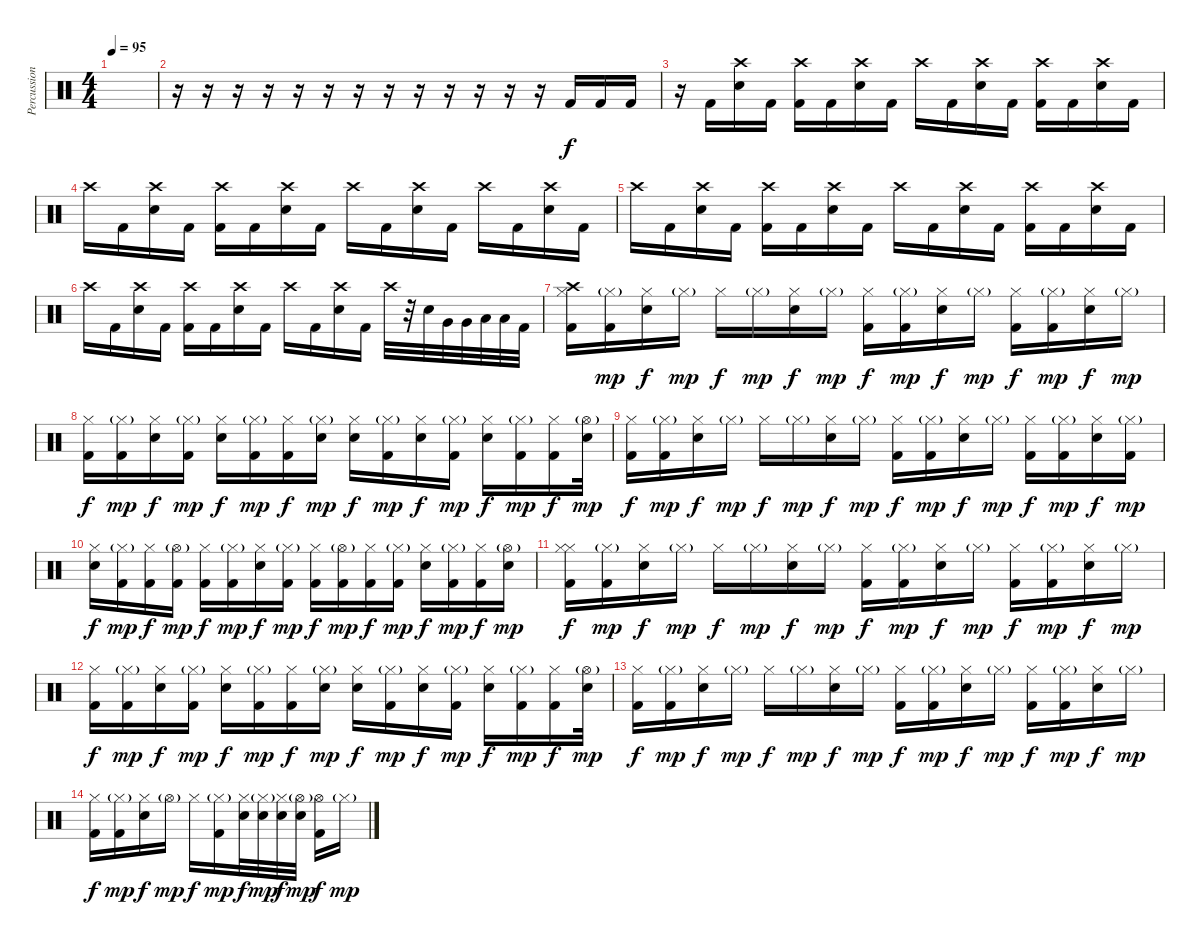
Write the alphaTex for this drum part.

\track ("Percussion" "Percussion") {instrument percussion}
\staff {score}
\articulation defaults
\ts (4 4)
\tempo 95
\clef neutral
\ks c
|
r.16 r.16 r.16 r.16 r.16 r.16 r.16 r.16 r.16 r.16 r.16 r.16 r.16 "Kick (hit) 2".16 "Kick (hit) 2".16 "Kick (hit) 2".16 |
r.16 "Kick (hit) 2".16{dy f} ("Crash high (hit)" "Electric Snare (hit)").16 "Kick (hit) 2".16 ("Crash high (hit)" "Kick (hit) 2").16 "Kick (hit) 2".16 ("Crash high (hit)" "Electric Snare (hit)").16 "Kick (hit) 2".16 "Crash high (hit)".16 "Kick (hit) 2".16 ("Crash high (hit)" "Electric Snare (hit)").16 "Kick (hit) 2".16 ("Crash high (hit)" "Kick (hit) 2").16 "Kick (hit) 2".16 ("Crash high (hit)" "Electric Snare (hit)").16 "Kick (hit) 2".16 |
"Crash high (hit)".16 "Kick (hit) 2".16 ("Crash high (hit)" "Electric Snare (hit)").16 "Kick (hit) 2".16 ("Crash high (hit)" "Kick (hit) 2").16 "Kick (hit) 2".16 ("Crash high (hit)" "Electric Snare (hit)").16 "Kick (hit) 2".16 "Crash high (hit)".16 "Kick (hit) 2".16 ("Crash high (hit)" "Electric Snare (hit)").16 "Kick (hit) 2".16 "Crash high (hit)".16 "Kick (hit) 2".16 ("Crash high (hit)" "Electric Snare (hit)").16 "Kick (hit) 2".16 |
"Crash high (hit)".16 "Kick (hit) 2".16 ("Crash high (hit)" "Electric Snare (hit)").16 "Kick (hit) 2".16 ("Crash high (hit)" "Kick (hit) 2").16 "Kick (hit) 2".16 ("Crash high (hit)" "Electric Snare (hit)").16 "Kick (hit) 2".16 "Crash high (hit)".16 "Kick (hit) 2".16 ("Crash high (hit)" "Electric Snare (hit)").16 "Kick (hit) 2".16 ("Crash high (hit)" "Kick (hit) 2").16 "Kick (hit) 2".16 ("Crash high (hit)" "Electric Snare (hit)").16 "Kick (hit) 2".16 |
"Crash high (hit)".16 "Kick (hit) 2".16 ("Crash high (hit)" "Electric Snare (hit)").16 "Kick (hit) 2".16 ("Crash high (hit)" "Kick (hit) 2").16 "Kick (hit) 2".16 ("Crash high (hit)" "Electric Snare (hit)").16 "Kick (hit) 2".16 "Crash high (hit)".16 "Kick (hit) 2".16 ("Crash high (hit)" "Electric Snare (hit)").16 "Kick (hit) 2".16 "Crash high (hit)".32 r.32 "Electric Snare (hit)".32 "Very Low Tom (hit)".32 "Very Low Tom (hit)".32 "Low Floor Tom (hit)".32 "Low Floor Tom (hit)".32 "Kick (hit) 2".32 |
("Crash high (hit)" "Hi-Hat (closed)" "Kick (hit) 2").16 ("Hi-Hat (closed)"{g} "Kick (hit) 2").16{dy mp} ("Hi-Hat (closed)" "Electric Snare (hit)").16{dy f} "Hi-Hat (closed)"{g}.16{dy mp} "Hi-Hat (closed)".16{dy f} "Hi-Hat (closed)"{g}.16{dy mp} ("Hi-Hat (closed)" "Electric Snare (hit)").16{dy f} "Hi-Hat (closed)"{g}.16{dy mp} ("Hi-Hat (closed)" "Kick (hit) 2").16{dy f} ("Hi-Hat (closed)"{g} "Kick (hit) 2").16{dy mp} ("Hi-Hat (closed)" "Electric Snare (hit)").16{dy f} "Hi-Hat (closed)"{g}.16{dy mp} ("Hi-Hat (closed)" "Kick (hit) 2").16{dy f} ("Hi-Hat (closed)"{g} "Kick (hit) 2").16{dy mp} ("Hi-Hat (closed)" "Electric Snare (hit)").16{dy f} "Hi-Hat (closed)"{g}.16{dy mp} |
("Hi-Hat (closed)" "Kick (hit) 2").16{dy f} ("Hi-Hat (closed)"{g} "Kick (hit) 2").16{dy mp} ("Hi-Hat (closed)" "Electric Snare (hit)").16{dy f} ("Hi-Hat (closed)"{g} "Kick (hit) 2").16{dy mp} ("Hi-Hat (closed)" "Electric Snare (hit)").16{dy f} ("Hi-Hat (closed)"{g} "Kick (hit) 2").16{dy mp} ("Hi-Hat (closed)" "Kick (hit) 2").16{dy f} ("Hi-Hat (closed)"{g} "Electric Snare (hit)").16{dy mp} ("Hi-Hat (closed)" "Electric Snare (hit)").16{dy f} ("Hi-Hat (closed)"{g} "Kick (hit) 2").16{dy mp} ("Hi-Hat (closed)" "Electric Snare (hit)").16{dy f} ("Hi-Hat (closed)"{g} "Kick (hit) 2").16{dy mp} ("Hi-Hat (closed)" "Electric Snare (hit)").16{dy f} ("Hi-Hat (closed)"{g} "Kick (hit) 2").16{dy mp} ("Hi-Hat (closed)" "Kick (hit) 2").16{dy f} ("Hi-Hat (open)"{g} "Electric Snare (hit)").32{dy mp} |
("Hi-Hat (closed)" "Kick (hit) 2").16{dy f} ("Hi-Hat (closed)"{g} "Kick (hit) 2").16{dy mp} ("Hi-Hat (closed)" "Electric Snare (hit)").16{dy f} "Hi-Hat (closed)"{g}.16{dy mp} "Hi-Hat (closed)".16{dy f} "Hi-Hat (closed)"{g}.16{dy mp} ("Hi-Hat (closed)" "Electric Snare (hit)").16{dy f} "Hi-Hat (closed)"{g}.16{dy mp} ("Hi-Hat (closed)" "Kick (hit) 2").16{dy f} ("Hi-Hat (closed)"{g} "Kick (hit) 2").16{dy mp} ("Hi-Hat (closed)" "Electric Snare (hit)").16{dy f} "Hi-Hat (closed)"{g}.16{dy mp} ("Hi-Hat (closed)" "Kick (hit) 2").16{dy f} ("Hi-Hat (closed)"{g} "Kick (hit) 2").16{dy mp} ("Hi-Hat (closed)" "Electric Snare (hit)").16{dy f} ("Hi-Hat (closed)"{g} "Kick (hit) 2").16{dy mp} |
("Hi-Hat (closed)" "Electric Snare (hit)").16{dy f} ("Hi-Hat (closed)"{g} "Kick (hit) 2").16{dy mp} ("Hi-Hat (closed)" "Kick (hit) 2").16{dy f} ("Hi-Hat (open)"{g} "Kick (hit) 2").16{dy mp} ("Hi-Hat (closed)" "Kick (hit) 2").16{dy f} ("Hi-Hat (closed)"{g} "Kick (hit) 2").16{dy mp} ("Hi-Hat (closed)" "Electric Snare (hit)").16{dy f} ("Hi-Hat (closed)"{g} "Kick (hit) 2").16{dy mp} ("Hi-Hat (closed)" "Kick (hit) 2").16{dy f} ("Hi-Hat (open)"{g} "Kick (hit) 2").16{dy mp} ("Hi-Hat (closed)" "Kick (hit) 2").16{dy f} ("Hi-Hat (closed)"{g} "Kick (hit) 2").16{dy mp} ("Hi-Hat (closed)" "Electric Snare (hit)").16{dy f} ("Hi-Hat (closed)"{g} "Kick (hit) 2").16{dy mp} ("Hi-Hat (closed)" "Kick (hit) 2").16{dy f} ("Hi-Hat (open)"{g} "Electric Snare (hit)").16{dy mp} |
("Hi-Hat (closed)" "Hi-Hat (closed)" "Kick (hit) 2").16{dy f} ("Hi-Hat (closed)"{g} "Kick (hit) 2").16{dy mp} ("Hi-Hat (closed)" "Electric Snare (hit)").16{dy f} "Hi-Hat (closed)"{g}.16{dy mp} "Hi-Hat (closed)".16{dy f} "Hi-Hat (closed)"{g}.16{dy mp} ("Hi-Hat (closed)" "Electric Snare (hit)").16{dy f} "Hi-Hat (closed)"{g}.16{dy mp} ("Hi-Hat (closed)" "Kick (hit) 2").16{dy f} ("Hi-Hat (closed)"{g} "Kick (hit) 2").16{dy mp} ("Hi-Hat (closed)" "Electric Snare (hit)").16{dy f} "Hi-Hat (closed)"{g}.16{dy mp} ("Hi-Hat (closed)" "Kick (hit) 2").16{dy f} ("Hi-Hat (closed)"{g} "Kick (hit) 2").16{dy mp} ("Hi-Hat (closed)" "Electric Snare (hit)").16{dy f} "Hi-Hat (closed)"{g}.16{dy mp} |
("Hi-Hat (closed)" "Kick (hit) 2").16{dy f} ("Hi-Hat (closed)"{g} "Kick (hit) 2").16{dy mp} ("Hi-Hat (closed)" "Electric Snare (hit)").16{dy f} ("Hi-Hat (closed)"{g} "Kick (hit) 2").16{dy mp} ("Hi-Hat (closed)" "Electric Snare (hit)").16{dy f} ("Hi-Hat (closed)"{g} "Kick (hit) 2").16{dy mp} ("Hi-Hat (closed)" "Kick (hit) 2").16{dy f} ("Hi-Hat (closed)"{g} "Electric Snare (hit)").16{dy mp} ("Hi-Hat (closed)" "Electric Snare (hit)").16{dy f} ("Hi-Hat (closed)"{g} "Kick (hit) 2").16{dy mp} ("Hi-Hat (closed)" "Electric Snare (hit)").16{dy f} ("Hi-Hat (closed)"{g} "Kick (hit) 2").16{dy mp} ("Hi-Hat (closed)" "Electric Snare (hit)").16{dy f} ("Hi-Hat (closed)"{g} "Kick (hit) 2").16{dy mp} ("Hi-Hat (closed)" "Kick (hit) 2").16{dy f} ("Hi-Hat (open)"{g} "Electric Snare (hit)").32{dy mp} |
("Hi-Hat (closed)" "Kick (hit) 2").16{dy f} ("Hi-Hat (closed)"{g} "Kick (hit) 2").16{dy mp} ("Hi-Hat (closed)" "Electric Snare (hit)").16{dy f} "Hi-Hat (closed)"{g}.16{dy mp} "Hi-Hat (closed)".16{dy f} "Hi-Hat (closed)"{g}.16{dy mp} ("Hi-Hat (closed)" "Electric Snare (hit)").16{dy f} "Hi-Hat (closed)"{g}.16{dy mp} ("Hi-Hat (closed)" "Kick (hit) 2").16{dy f} ("Hi-Hat (closed)"{g} "Kick (hit) 2").16{dy mp} ("Hi-Hat (closed)" "Electric Snare (hit)").16{dy f} "Hi-Hat (closed)"{g}.16{dy mp} ("Hi-Hat (closed)" "Kick (hit) 2").16{dy f} ("Hi-Hat (closed)"{g} "Kick (hit) 2").16{dy mp} ("Hi-Hat (closed)" "Electric Snare (hit)").16{dy f} "Hi-Hat (closed)"{g}.16{dy mp} |
("Hi-Hat (closed)" "Kick (hit) 2").16{dy f} ("Hi-Hat (closed)"{g} "Kick (hit) 2").16{dy mp} ("Hi-Hat (closed)" "Electric Snare (hit)").16{dy f} "Hi-Hat (open)"{g}.16{dy mp} "Hi-Hat (closed)".16{dy f} ("Hi-Hat (closed)"{g} "Kick (hit) 2").16{dy mp} ("Hi-Hat (closed)" "Electric Snare (hit)").32{dy f} ("Hi-Hat (closed)"{g} "Electric Snare (hit)").32{dy mp} ("Hi-Hat (closed)" "Electric Snare (hit)").32{dy f} ("Hi-Hat (open)"{g} "Electric Snare (hit)").32{dy mp} ("Hi-Hat (open)" "Kick (hit) 2").16{dy f} "Hi-Hat (closed)"{g}.16{dy mp}
